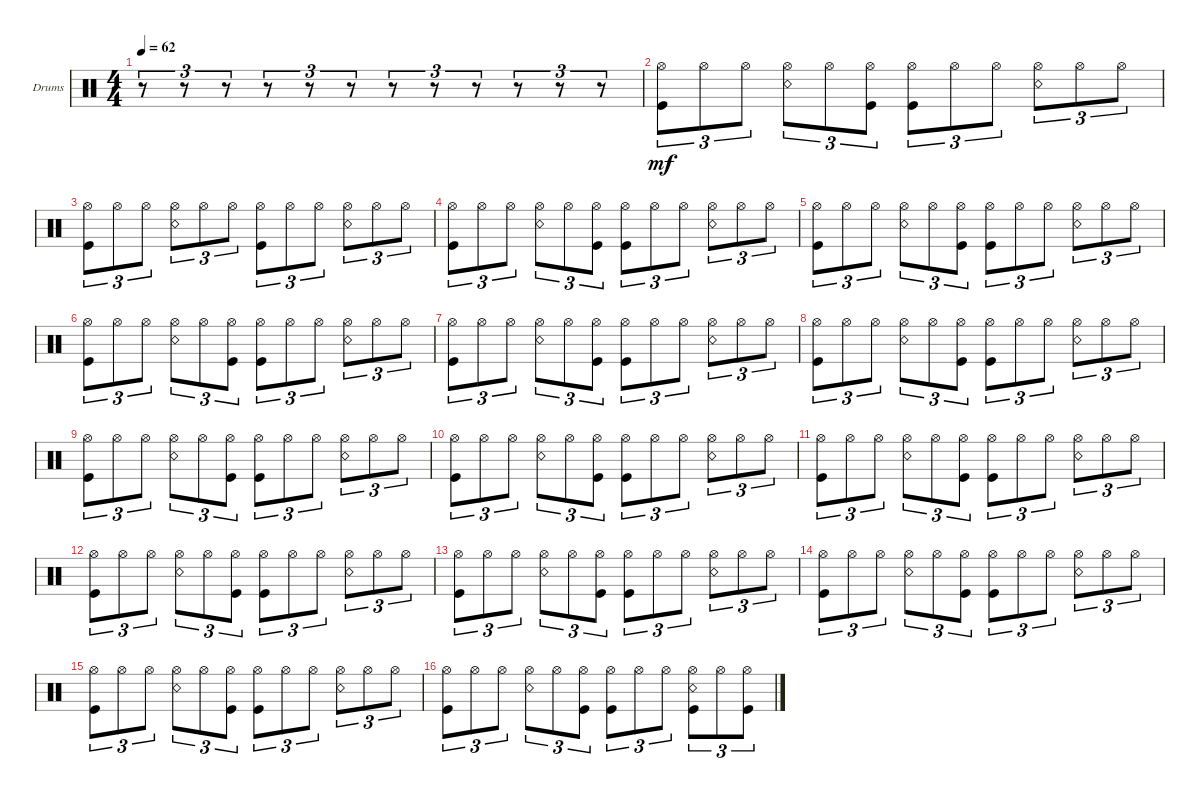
\defaultSystemsLayout 4
\bracketExtendMode groupsimilarinstruments
\firstSystemTrackNameOrientation horizontal
\otherSystemsTrackNameOrientation horizontal
\track ("Drumkit" "Drums") {instrument percussion}
\staff {score}
\articulation defaults
\ts (4 4)
\tempo 62
\clef neutral
\ks c
r.8{tu (3 2) dy mf} r.8{tu (3 2)} r.8{tu (3 2)} r.8{tu (3 2)} r.8{tu (3 2)} r.8{tu (3 2)} r.8{tu (3 2)} r.8{tu (3 2)} r.8{tu (3 2)} r.8{tu (3 2)} r.8{tu (3 2)} r.8{tu (3 2)} |
("Hi-Hat (open)" "Kick (hit)").8{tu (3 2)} "Hi-Hat (open)".8{tu (3 2)} "Hi-Hat (open)".8{tu (3 2)} ("Hi-Hat (open)" "Snare (rim shot)").8{tu (3 2)} "Hi-Hat (open)".8{tu (3 2)} ("Hi-Hat (open)" "Kick (hit)").8{tu (3 2)} ("Hi-Hat (open)" "Kick (hit)").8{tu (3 2)} "Hi-Hat (open)".8{tu (3 2)} "Hi-Hat (open)".8{tu (3 2)} ("Hi-Hat (open)" "Snare (rim shot)").8{tu (3 2)} "Hi-Hat (open)".8{tu (3 2)} "Hi-Hat (open)".8{tu (3 2)} |
("Hi-Hat (open)" "Kick (hit)").8{tu (3 2)} "Hi-Hat (open)".8{tu (3 2)} "Hi-Hat (open)".8{tu (3 2)} ("Hi-Hat (open)" "Snare (rim shot)").8{tu (3 2)} "Hi-Hat (open)".8{tu (3 2)} "Hi-Hat (open)".8{tu (3 2)} ("Hi-Hat (open)" "Kick (hit)").8{tu (3 2)} "Hi-Hat (open)".8{tu (3 2)} "Hi-Hat (open)".8{tu (3 2)} ("Hi-Hat (open)" "Snare (rim shot)").8{tu (3 2)} "Hi-Hat (open)".8{tu (3 2)} "Hi-Hat (open)".8{tu (3 2)} |
("Hi-Hat (open)" "Kick (hit)").8{tu (3 2)} "Hi-Hat (open)".8{tu (3 2)} "Hi-Hat (open)".8{tu (3 2)} ("Hi-Hat (open)" "Snare (rim shot)").8{tu (3 2)} "Hi-Hat (open)".8{tu (3 2)} ("Hi-Hat (open)" "Kick (hit)").8{tu (3 2)} ("Hi-Hat (open)" "Kick (hit)").8{tu (3 2)} "Hi-Hat (open)".8{tu (3 2)} "Hi-Hat (open)".8{tu (3 2)} ("Hi-Hat (open)" "Snare (rim shot)").8{tu (3 2)} "Hi-Hat (open)".8{tu (3 2)} "Hi-Hat (open)".8{tu (3 2)} |
("Hi-Hat (open)" "Kick (hit)").8{tu (3 2)} "Hi-Hat (open)".8{tu (3 2)} "Hi-Hat (open)".8{tu (3 2)} ("Hi-Hat (open)" "Snare (rim shot)").8{tu (3 2)} "Hi-Hat (open)".8{tu (3 2)} ("Hi-Hat (open)" "Kick (hit)").8{tu (3 2)} ("Hi-Hat (open)" "Kick (hit)").8{tu (3 2)} "Hi-Hat (open)".8{tu (3 2)} "Hi-Hat (open)".8{tu (3 2)} ("Hi-Hat (open)" "Snare (rim shot)").8{tu (3 2)} "Hi-Hat (open)".8{tu (3 2)} "Hi-Hat (open)".8{tu (3 2)} |
("Hi-Hat (open)" "Kick (hit)").8{tu (3 2)} "Hi-Hat (open)".8{tu (3 2)} "Hi-Hat (open)".8{tu (3 2)} ("Hi-Hat (open)" "Snare (rim shot)").8{tu (3 2)} "Hi-Hat (open)".8{tu (3 2)} ("Hi-Hat (open)" "Kick (hit)").8{tu (3 2)} ("Hi-Hat (open)" "Kick (hit)").8{tu (3 2)} "Hi-Hat (open)".8{tu (3 2)} "Hi-Hat (open)".8{tu (3 2)} ("Hi-Hat (open)" "Snare (rim shot)").8{tu (3 2)} "Hi-Hat (open)".8{tu (3 2)} "Hi-Hat (open)".8{tu (3 2)} |
("Hi-Hat (open)" "Kick (hit)").8{tu (3 2)} "Hi-Hat (open)".8{tu (3 2)} "Hi-Hat (open)".8{tu (3 2)} ("Hi-Hat (open)" "Snare (rim shot)").8{tu (3 2)} "Hi-Hat (open)".8{tu (3 2)} ("Hi-Hat (open)" "Kick (hit)").8{tu (3 2)} ("Hi-Hat (open)" "Kick (hit)").8{tu (3 2)} "Hi-Hat (open)".8{tu (3 2)} "Hi-Hat (open)".8{tu (3 2)} ("Hi-Hat (open)" "Snare (rim shot)").8{tu (3 2)} "Hi-Hat (open)".8{tu (3 2)} "Hi-Hat (open)".8{tu (3 2)} |
("Hi-Hat (open)" "Kick (hit)").8{tu (3 2)} "Hi-Hat (open)".8{tu (3 2)} "Hi-Hat (open)".8{tu (3 2)} ("Hi-Hat (open)" "Snare (rim shot)").8{tu (3 2)} "Hi-Hat (open)".8{tu (3 2)} ("Hi-Hat (open)" "Kick (hit)").8{tu (3 2)} ("Hi-Hat (open)" "Kick (hit)").8{tu (3 2)} "Hi-Hat (open)".8{tu (3 2)} "Hi-Hat (open)".8{tu (3 2)} ("Hi-Hat (open)" "Snare (rim shot)").8{tu (3 2)} "Hi-Hat (open)".8{tu (3 2)} "Hi-Hat (open)".8{tu (3 2)} |
("Hi-Hat (open)" "Kick (hit)").8{tu (3 2)} "Hi-Hat (open)".8{tu (3 2)} "Hi-Hat (open)".8{tu (3 2)} ("Hi-Hat (open)" "Snare (rim shot)").8{tu (3 2)} "Hi-Hat (open)".8{tu (3 2)} ("Hi-Hat (open)" "Kick (hit)").8{tu (3 2)} ("Hi-Hat (open)" "Kick (hit)").8{tu (3 2)} "Hi-Hat (open)".8{tu (3 2)} "Hi-Hat (open)".8{tu (3 2)} ("Hi-Hat (open)" "Snare (rim shot)").8{tu (3 2)} "Hi-Hat (open)".8{tu (3 2)} "Hi-Hat (open)".8{tu (3 2)} |
("Hi-Hat (open)" "Kick (hit)").8{tu (3 2)} "Hi-Hat (open)".8{tu (3 2)} "Hi-Hat (open)".8{tu (3 2)} ("Hi-Hat (open)" "Snare (rim shot)").8{tu (3 2)} "Hi-Hat (open)".8{tu (3 2)} ("Hi-Hat (open)" "Kick (hit)").8{tu (3 2)} ("Hi-Hat (open)" "Kick (hit)").8{tu (3 2)} "Hi-Hat (open)".8{tu (3 2)} "Hi-Hat (open)".8{tu (3 2)} ("Hi-Hat (open)" "Snare (rim shot)").8{tu (3 2)} "Hi-Hat (open)".8{tu (3 2)} "Hi-Hat (open)".8{tu (3 2)} |
("Hi-Hat (open)" "Kick (hit)").8{tu (3 2)} "Hi-Hat (open)".8{tu (3 2)} "Hi-Hat (open)".8{tu (3 2)} ("Hi-Hat (open)" "Snare (rim shot)").8{tu (3 2)} "Hi-Hat (open)".8{tu (3 2)} ("Hi-Hat (open)" "Kick (hit)").8{tu (3 2)} ("Hi-Hat (open)" "Kick (hit)").8{tu (3 2)} "Hi-Hat (open)".8{tu (3 2)} "Hi-Hat (open)".8{tu (3 2)} ("Hi-Hat (open)" "Snare (rim shot)").8{tu (3 2)} "Hi-Hat (open)".8{tu (3 2)} "Hi-Hat (open)".8{tu (3 2)} |
("Hi-Hat (open)" "Kick (hit)").8{tu (3 2)} "Hi-Hat (open)".8{tu (3 2)} "Hi-Hat (open)".8{tu (3 2)} ("Hi-Hat (open)" "Snare (rim shot)").8{tu (3 2)} "Hi-Hat (open)".8{tu (3 2)} ("Hi-Hat (open)" "Kick (hit)").8{tu (3 2)} ("Hi-Hat (open)" "Kick (hit)").8{tu (3 2)} "Hi-Hat (open)".8{tu (3 2)} "Hi-Hat (open)".8{tu (3 2)} ("Hi-Hat (open)" "Snare (rim shot)").8{tu (3 2)} "Hi-Hat (open)".8{tu (3 2)} "Hi-Hat (open)".8{tu (3 2)} |
("Hi-Hat (open)" "Kick (hit)").8{tu (3 2)} "Hi-Hat (open)".8{tu (3 2)} "Hi-Hat (open)".8{tu (3 2)} ("Hi-Hat (open)" "Snare (rim shot)").8{tu (3 2)} "Hi-Hat (open)".8{tu (3 2)} ("Hi-Hat (open)" "Kick (hit)").8{tu (3 2)} ("Hi-Hat (open)" "Kick (hit)").8{tu (3 2)} "Hi-Hat (open)".8{tu (3 2)} "Hi-Hat (open)".8{tu (3 2)} ("Hi-Hat (open)" "Snare (rim shot)").8{tu (3 2)} "Hi-Hat (open)".8{tu (3 2)} "Hi-Hat (open)".8{tu (3 2)} |
("Hi-Hat (open)" "Kick (hit)").8{tu (3 2)} "Hi-Hat (open)".8{tu (3 2)} "Hi-Hat (open)".8{tu (3 2)} ("Hi-Hat (open)" "Snare (rim shot)").8{tu (3 2)} "Hi-Hat (open)".8{tu (3 2)} ("Hi-Hat (open)" "Kick (hit)").8{tu (3 2)} ("Hi-Hat (open)" "Kick (hit)").8{tu (3 2)} "Hi-Hat (open)".8{tu (3 2)} "Hi-Hat (open)".8{tu (3 2)} ("Hi-Hat (open)" "Snare (rim shot)").8{tu (3 2)} "Hi-Hat (open)".8{tu (3 2)} "Hi-Hat (open)".8{tu (3 2)} |
("Hi-Hat (open)" "Kick (hit)").8{tu (3 2)} "Hi-Hat (open)".8{tu (3 2)} "Hi-Hat (open)".8{tu (3 2)} ("Hi-Hat (open)" "Snare (rim shot)").8{tu (3 2)} "Hi-Hat (open)".8{tu (3 2)} ("Hi-Hat (open)" "Kick (hit)").8{tu (3 2)} ("Hi-Hat (open)" "Kick (hit)").8{tu (3 2)} "Hi-Hat (open)".8{tu (3 2)} "Hi-Hat (open)".8{tu (3 2)} ("Hi-Hat (open)" "Snare (rim shot)").8{tu (3 2)} "Hi-Hat (open)".8{tu (3 2)} "Hi-Hat (open)".8{tu (3 2)} |
("Hi-Hat (open)" "Kick (hit)").8{tu (3 2)} "Hi-Hat (open)".8{tu (3 2)} "Hi-Hat (open)".8{tu (3 2)} ("Hi-Hat (open)" "Snare (rim shot)").8{tu (3 2)} "Hi-Hat (open)".8{tu (3 2)} ("Hi-Hat (open)" "Kick (hit)").8{tu (3 2)} ("Hi-Hat (open)" "Kick (hit)").8{tu (3 2)} "Hi-Hat (open)".8{tu (3 2)} "Hi-Hat (open)".8{tu (3 2)} ("Hi-Hat (open)" "Snare (rim shot)" "Kick (hit)").8{tu (3 2)} "Hi-Hat (open)".8{tu (3 2)} ("Hi-Hat (open)" "Kick (hit)").8{tu (3 2)}
